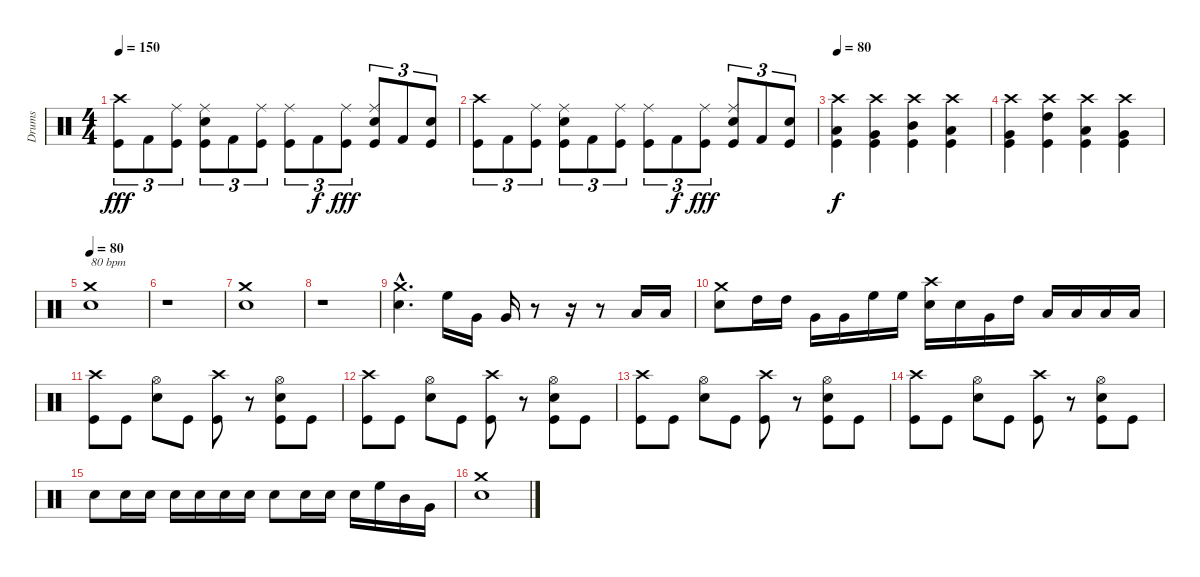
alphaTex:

\track ("Drums" "Drums") {instrument percussion}
\staff {score}
\articulation defaults
\ts (4 4)
\tempo 150
\clef neutral
\ks c
("Crash high (hit)" "Kick (hit)").8{tu (3 2) dy fff} "Kick (hit) 2".8{tu (3 2)} ("Ride (middle)" "Kick (hit)").8{tu (3 2)} ("Ride (middle)" "Snare (hit) 2" "Kick (hit)").8{tu (3 2)} "Kick (hit) 2".8{tu (3 2)} ("Ride (middle)" "Kick (hit)").8{tu (3 2)} ("Ride (middle)" "Kick (hit)").8{tu (3 2)} "Kick (hit) 2".8{tu (3 2) dy f} ("Ride (middle)" "Kick (hit)").8{tu (3 2) dy fff} ("Ride (middle)" "Snare (hit) 2" "Kick (hit)").8{tu (3 2)} "Kick (hit) 2".8{tu (3 2)} ("Snare (hit) 2" "Kick (hit)").8{tu (3 2)} |
("Crash high (hit)" "Kick (hit)").8{tu (3 2)} "Kick (hit) 2".8{tu (3 2)} ("Ride (middle)" "Kick (hit)").8{tu (3 2)} ("Ride (middle)" "Snare (hit) 2" "Kick (hit)").8{tu (3 2)} "Kick (hit) 2".8{tu (3 2)} ("Ride (middle)" "Kick (hit)").8{tu (3 2)} ("Ride (middle)" "Kick (hit)").8{tu (3 2)} "Kick (hit) 2".8{tu (3 2) dy f} ("Ride (middle)" "Kick (hit)").8{tu (3 2) dy fff} ("Ride (middle)" "Snare (hit) 2" "Kick (hit)").8{tu (3 2)} "Kick (hit) 2".8{tu (3 2)} ("Snare (hit) 2" "Kick (hit)").8{tu (3 2)} |
\tempo 80
("Crash high (hit)" "Low Floor Tom (hit)" "Kick (hit)").4{dy f} ("Crash high (hit)" "Very Low Tom (hit)" "Kick (hit)").4 ("Crash high (hit)" "Mid Tom (hit)" "Kick (hit)").4 ("Crash high (hit)" "Low Tom (hit)" "Kick (hit)").4 |
("Crash high (hit)" "Very Low Tom (hit)" "Kick (hit)").4 ("Crash high (hit)" "High Tom (hit)" "Kick (hit)").4 ("Crash high (hit)" "Low Tom (hit)" "Kick (hit)").4 ("Crash high (hit)" "Very Low Tom (hit)" "Kick (hit)").4 |
\tempo 80
("Crash medium (hit)" "Electric Snare (hit)").1{txt "80 bpm"} |
r.1 |
("Crash medium (hit)" "Electric Snare (hit)").1 |
r.1 |
("Crash medium (hit)"{hac} "Electric Snare (hit)"{hac}).4{d} "High Floor Tom (hit)".16 "Very Low Tom (hit)".16 "Very Low Tom (hit)".16 r.8 r.16 r.8 "Low Tom (hit)".16 "Low Tom (hit)".16 |
("Crash medium (hit)" "Electric Snare (hit)").8 "High Tom (hit)".16 "High Tom (hit)".16 "Very Low Tom (hit)".16 "Very Low Tom (hit)".16 "High Floor Tom (hit)".16 "High Floor Tom (hit)".16 ("Crash high (hit)" "Electric Snare (hit)").16 "Electric Snare (hit)".16 "Very Low Tom (hit)".16 "High Tom (hit)".16 "Low Floor Tom (hit)".16 "Low Tom (hit)".16 "Low Tom (hit)".16 "Low Tom (hit)".16 |
("Crash high (hit)" "Kick (hit)").8 "Kick (hit)".8 ("Hi-Hat (open)" "Electric Snare (hit)").8 "Kick (hit)".8 ("Crash high (hit)" "Kick (hit)").8 r.8 ("Hi-Hat (open)" "Electric Snare (hit)" "Kick (hit)").8 "Kick (hit)".8 |
("Crash high (hit)" "Kick (hit)").8 "Kick (hit)".8 ("Hi-Hat (open)" "Electric Snare (hit)").8 "Kick (hit)".8 ("Crash high (hit)" "Kick (hit)").8 r.8 ("Hi-Hat (open)" "Electric Snare (hit)" "Kick (hit)").8 "Kick (hit)".8 |
("Crash high (hit)" "Kick (hit)").8 "Kick (hit)".8 ("Hi-Hat (open)" "Electric Snare (hit)").8 "Kick (hit)".8 ("Crash high (hit)" "Kick (hit)").8 r.8 ("Hi-Hat (open)" "Electric Snare (hit)" "Kick (hit)").8 "Kick (hit)".8 |
("Crash high (hit)" "Kick (hit)").8 "Kick (hit)".8 ("Hi-Hat (open)" "Electric Snare (hit)").8 "Kick (hit)".8 ("Crash high (hit)" "Kick (hit)").8 r.8 ("Hi-Hat (open)" "Electric Snare (hit)" "Kick (hit)").8 "Kick (hit)".8 |
"Electric Snare (hit)".8 "Electric Snare (hit)".16 "Electric Snare (hit)".16 "Electric Snare (hit)".16 "Electric Snare (hit)".16 "Electric Snare (hit)".16 "Electric Snare (hit)".16 "Electric Snare (hit)".8 "Electric Snare (hit)".16 "Electric Snare (hit)".16 "Electric Snare (hit)".16 "High Floor Tom (hit)".16 "Mid Tom (hit)".16 "Very Low Tom (hit)".16 |
("Crash medium (hit)" "Electric Snare (hit)").1
